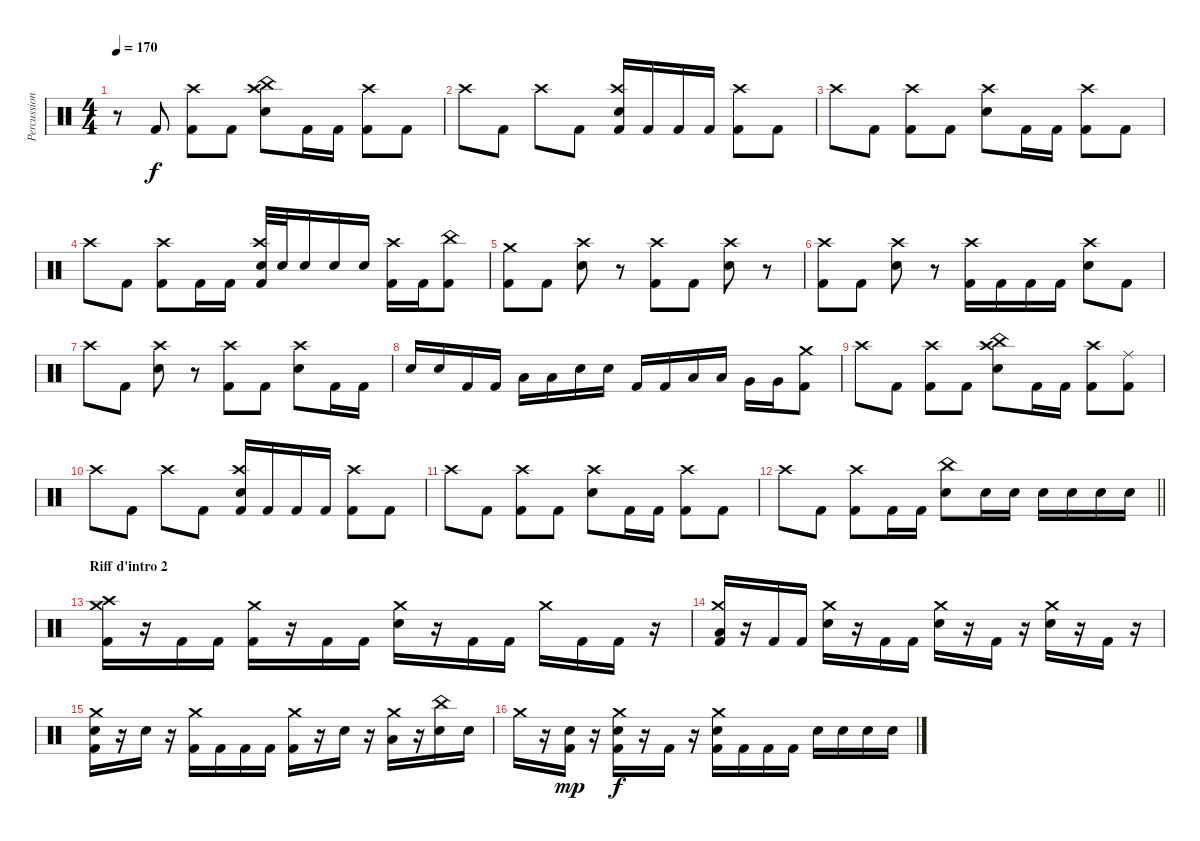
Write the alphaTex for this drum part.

\track ("Percussions" "Percussion") {instrument percussion}
\staff {score}
\articulation defaults
\ts (4 4)
\tempo 170
\clef neutral
\ks c
r.8{dy f} "Kick (hit) 2".8 ("Crash high (hit)" "Kick (hit) 2").8 "Kick (hit) 2".8 ("Crash high (hit)" "China (hit)" "Electric Snare (hit)").8 "Kick (hit) 2".16 "Kick (hit) 2".16 ("Crash high (hit)" "Kick (hit) 2").8 "Kick (hit) 2".8 |
"Crash high (hit)".8 "Kick (hit) 2".8 "Crash high (hit)".8 "Kick (hit) 2".8 ("Crash high (hit)" "Electric Snare (hit)" "Kick (hit) 2").16 "Kick (hit) 2".16 "Kick (hit) 2".16 "Kick (hit) 2".16 ("Crash high (hit)" "Kick (hit) 2").8 "Kick (hit) 2".8 |
"Crash high (hit)".8 "Kick (hit) 2".8 ("Crash high (hit)" "Kick (hit) 2").8 "Kick (hit) 2".8 ("Crash high (hit)" "Electric Snare (hit)").8 "Kick (hit) 2".16 "Kick (hit) 2".16 ("Crash high (hit)" "Kick (hit) 2").8 "Kick (hit) 2".8 |
"Crash high (hit)".8 "Kick (hit) 2".8 ("Crash high (hit)" "Kick (hit) 2").8 "Kick (hit) 2".16 "Kick (hit) 2".16 ("Crash high (hit)" "Electric Snare (hit)" "Kick (hit) 2").32 "Electric Snare (hit)".32 "Electric Snare (hit)".16 "Electric Snare (hit)".16 "Electric Snare (hit)".16 ("Crash high (hit)" "Kick (hit) 2").16 "Kick (hit) 2".16 ("China (hit)" "Kick (hit) 2").8 |
("Crash medium (hit)" "Kick (hit) 2").8 "Kick (hit) 2".8 ("Crash high (hit)" "Electric Snare (hit)").8 r.8 ("Crash high (hit)" "Kick (hit) 2").8 "Kick (hit) 2".8 ("Crash high (hit)" "Electric Snare (hit)").8 r.8 |
("Crash high (hit)" "Kick (hit) 2").8 "Kick (hit) 2".8 ("Crash high (hit)" "Electric Snare (hit)").8 r.8 ("Crash high (hit)" "Kick (hit) 2").16 "Kick (hit) 2".16 "Kick (hit) 2".16 "Kick (hit) 2".16 ("Crash high (hit)" "Electric Snare (hit)").8 "Kick (hit) 2".8 |
"Crash high (hit)".8 "Kick (hit) 2".8 ("Crash high (hit)" "Electric Snare (hit)").8 r.8 ("Crash high (hit)" "Kick (hit) 2").8 "Kick (hit) 2".8 ("Crash high (hit)" "Electric Snare (hit)").8 "Kick (hit) 2".16 "Kick (hit) 2".16 |
"Electric Snare (hit)".16 "Electric Snare (hit)".16 "Kick (hit) 2".16 "Kick (hit) 2".16 "Low Tom (hit)".16 "Low Tom (hit)".16 "Electric Snare (hit)".16 "Electric Snare (hit)".16 "Kick (hit) 2".16 "Kick (hit) 2".16 "Low Tom (hit)".16 "Low Tom (hit)".16 "Very Low Tom (hit)".16 "Very Low Tom (hit)".16 ("Crash medium (hit)" "Kick (hit) 2").8 |
"Crash high (hit)".8 "Kick (hit) 2".8 ("Crash high (hit)" "Kick (hit) 2").8 "Kick (hit) 2".8 ("Crash high (hit)" "China (hit)" "Electric Snare (hit)").8 "Kick (hit) 2".16 "Kick (hit) 2".16 ("Crash high (hit)" "Kick (hit) 2").8 ("Ride (middle)" "Kick (hit) 2").8 |
"Crash high (hit)".8 "Kick (hit) 2".8 "Crash high (hit)".8 "Kick (hit) 2".8 ("Crash high (hit)" "Electric Snare (hit)" "Kick (hit) 2").16 "Kick (hit) 2".16 "Kick (hit) 2".16 "Kick (hit) 2".16 ("Crash high (hit)" "Kick (hit) 2").8 "Kick (hit) 2".8 |
"Crash high (hit)".8 "Kick (hit) 2".8 ("Crash high (hit)" "Kick (hit) 2").8 "Kick (hit) 2".8 ("Crash high (hit)" "Electric Snare (hit)").8 "Kick (hit) 2".16 "Kick (hit) 2".16 ("Crash high (hit)" "Kick (hit) 2").8 "Kick (hit) 2".8 |
\barLineRight lightlight "Crash high (hit)".8 "Kick (hit) 2".8
("Crash high (hit)" "Kick (hit) 2").8 "Kick (hit) 2".16 "Kick (hit) 2".16 ("China (hit)" "Electric Snare (hit)").8 "Electric Snare (hit)".16 "Electric Snare (hit)".16 "Electric Snare (hit)".16 "Electric Snare (hit)".16 "Electric Snare (hit)".16 "Electric Snare (hit)".16 |
\section ("" "Riff d'intro 2")
("Crash medium (hit)" "Crash high (hit)" "Kick (hit) 2").16 r.16 "Kick (hit) 2".16 "Kick (hit) 2".16 ("Crash medium (hit)" "Kick (hit) 2").16 r.16 "Kick (hit) 2".16 "Kick (hit) 2".16 ("Crash medium (hit)" "Electric Snare (hit)").16 r.16 "Kick (hit) 2".16 "Kick (hit) 2".16 "Crash medium (hit)".16 "Kick (hit) 2".16 "Kick (hit) 2".16 r.16 |
("Crash medium (hit)" "Low Tom (hit)" "Kick (hit) 2").16 r.16 "Kick (hit) 2".16 "Kick (hit) 2".16 ("Crash medium (hit)" "Electric Snare (hit)").16 r.16 "Kick (hit) 2".16 "Kick (hit) 2".16 ("Crash medium (hit)" "Electric Snare (hit)").16 r.16 "Kick (hit) 2".16 r.16 ("Crash medium (hit)" "Electric Snare (hit)").16 r.16 "Kick (hit) 2".16 r.16 |
("Crash medium (hit)" "Electric Snare (hit)" "Kick (hit) 2").16 r.16 "Electric Snare (hit)".16 r.16 ("Crash medium (hit)" "Kick (hit) 2").16 "Kick (hit) 2".16 "Kick (hit) 2".16 "Kick (hit) 2".16 ("Crash medium (hit)" "Kick (hit) 2").16 r.16 "Electric Snare (hit)".16 r.16 ("Crash medium (hit)" "Low Tom (hit)").16 r.16 ("China (hit)" "Electric Snare (hit)").16 "Electric Snare (hit)".16 |
"Crash medium (hit)".16 r.16 ("Electric Snare (hit)" "Kick (hit) 2").16{dy mp} r.16 ("Crash medium (hit)" "Electric Snare (hit)" "Kick (hit) 2").16{dy f} r.16 "Kick (hit) 2".16 r.16 ("Crash medium (hit)" "Electric Snare (hit)" "Kick (hit) 2").16 "Kick (hit) 2".16 "Kick (hit) 2".16 "Kick (hit) 2".16 "Electric Snare (hit)".16 "Electric Snare (hit)".16 "Electric Snare (hit)".16 "Electric Snare (hit)".16
